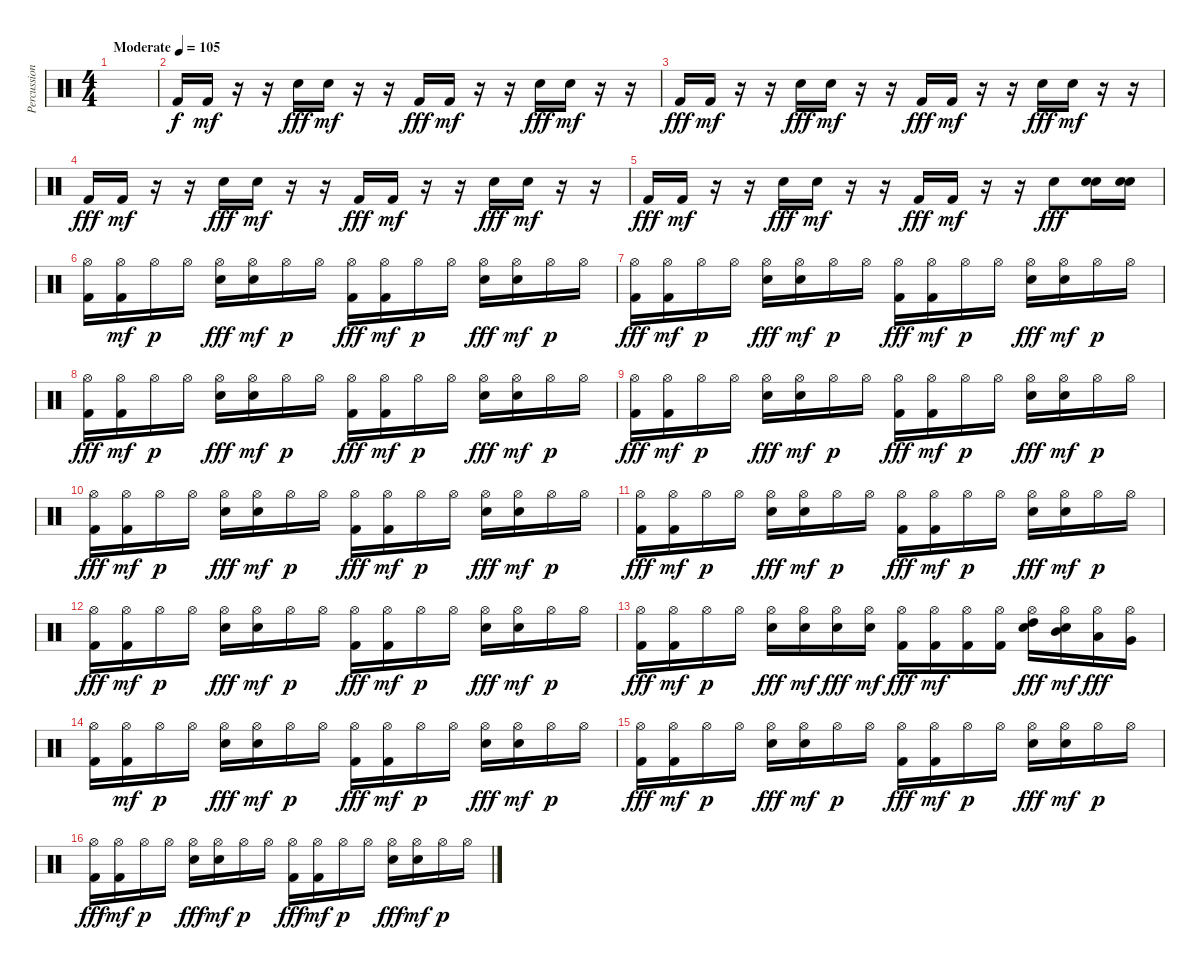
\track ("Percussion" "Percussion") {instrument percussion}
\staff {score}
\articulation defaults
\ts (4 4)
\tempo (105 "Moderate")
\clef neutral
\ks c
|
"Kick (hit) 2".16 "Kick (hit) 2".16{dy mf} r.16 r.16 "Snare (hit) 2".16{dy fff} "Snare (hit) 2".16{dy mf} r.16 r.16 "Kick (hit) 2".16{dy fff} "Kick (hit) 2".16{dy mf} r.16 r.16 "Snare (hit) 2".16{dy fff} "Snare (hit) 2".16{dy mf} r.16 r.16 |
"Kick (hit) 2".16{dy fff} "Kick (hit) 2".16{dy mf} r.16 r.16 "Snare (hit) 2".16{dy fff} "Snare (hit) 2".16{dy mf} r.16 r.16 "Kick (hit) 2".16{dy fff} "Kick (hit) 2".16{dy mf} r.16 r.16 "Snare (hit) 2".16{dy fff} "Snare (hit) 2".16{dy mf} r.16 r.16 |
"Kick (hit) 2".16{dy fff} "Kick (hit) 2".16{dy mf} r.16 r.16 "Snare (hit) 2".16{dy fff} "Snare (hit) 2".16{dy mf} r.16 r.16 "Kick (hit) 2".16{dy fff} "Kick (hit) 2".16{dy mf} r.16 r.16 "Snare (hit) 2".16{dy fff} "Snare (hit) 2".16{dy mf} r.16 r.16 |
"Kick (hit) 2".16{dy fff} "Kick (hit) 2".16{dy mf} r.16 r.16 "Snare (hit) 2".16{dy fff} "Snare (hit) 2".16{dy mf} r.16 r.16 "Kick (hit) 2".16{dy fff} "Kick (hit) 2".16{dy mf} r.16 r.16 "Snare (hit) 2".8{dy fff} ("Snare (hit) 2" "Electric Snare (hit)").16 ("Snare (hit) 2" "Electric Snare (hit)").16 |
("Hi-Hat (open)" "Kick (hit) 2").16 ("Hi-Hat (open)" "Kick (hit) 2").16{dy mf} "Hi-Hat (open)".16{dy p} "Hi-Hat (open)".16 ("Hi-Hat (open)" "Snare (hit) 2").16{dy fff} ("Hi-Hat (open)" "Snare (hit) 2").16{dy mf} "Hi-Hat (open)".16{dy p} "Hi-Hat (open)".16 ("Hi-Hat (open)" "Kick (hit) 2").16{dy fff} ("Hi-Hat (open)" "Kick (hit) 2").16{dy mf} "Hi-Hat (open)".16{dy p} "Hi-Hat (open)".16 ("Hi-Hat (open)" "Snare (hit) 2").16{dy fff} ("Hi-Hat (open)" "Snare (hit) 2").16{dy mf} "Hi-Hat (open)".16{dy p} "Hi-Hat (open)".16 |
("Hi-Hat (open)" "Kick (hit) 2").16{dy fff} ("Hi-Hat (open)" "Kick (hit) 2").16{dy mf} "Hi-Hat (open)".16{dy p} "Hi-Hat (open)".16 ("Hi-Hat (open)" "Snare (hit) 2").16{dy fff} ("Hi-Hat (open)" "Snare (hit) 2").16{dy mf} "Hi-Hat (open)".16{dy p} "Hi-Hat (open)".16 ("Hi-Hat (open)" "Kick (hit) 2").16{dy fff} ("Hi-Hat (open)" "Kick (hit) 2").16{dy mf} "Hi-Hat (open)".16{dy p} "Hi-Hat (open)".16 ("Hi-Hat (open)" "Snare (hit) 2").16{dy fff} ("Hi-Hat (open)" "Snare (hit) 2").16{dy mf} "Hi-Hat (open)".16{dy p} "Hi-Hat (open)".16 |
("Hi-Hat (open)" "Kick (hit) 2").16{dy fff} ("Hi-Hat (open)" "Kick (hit) 2").16{dy mf} "Hi-Hat (open)".16{dy p} "Hi-Hat (open)".16 ("Hi-Hat (open)" "Snare (hit) 2").16{dy fff} ("Hi-Hat (open)" "Snare (hit) 2").16{dy mf} "Hi-Hat (open)".16{dy p} "Hi-Hat (open)".16 ("Hi-Hat (open)" "Kick (hit) 2").16{dy fff} ("Hi-Hat (open)" "Kick (hit) 2").16{dy mf} "Hi-Hat (open)".16{dy p} "Hi-Hat (open)".16 ("Hi-Hat (open)" "Snare (hit) 2").16{dy fff} ("Hi-Hat (open)" "Snare (hit) 2").16{dy mf} "Hi-Hat (open)".16{dy p} "Hi-Hat (open)".16 |
("Hi-Hat (open)" "Kick (hit) 2").16{dy fff} ("Hi-Hat (open)" "Kick (hit) 2").16{dy mf} "Hi-Hat (open)".16{dy p} "Hi-Hat (open)".16 ("Hi-Hat (open)" "Snare (hit) 2").16{dy fff} ("Hi-Hat (open)" "Snare (hit) 2").16{dy mf} "Hi-Hat (open)".16{dy p} "Hi-Hat (open)".16 ("Hi-Hat (open)" "Kick (hit) 2").16{dy fff} ("Hi-Hat (open)" "Kick (hit) 2").16{dy mf} "Hi-Hat (open)".16{dy p} "Hi-Hat (open)".16 ("Hi-Hat (open)" "Snare (hit) 2").16{dy fff} ("Hi-Hat (open)" "Snare (hit) 2").16{dy mf} "Hi-Hat (open)".16{dy p} "Hi-Hat (open)".16 |
("Hi-Hat (open)" "Kick (hit) 2").16{dy fff} ("Hi-Hat (open)" "Kick (hit) 2").16{dy mf} "Hi-Hat (open)".16{dy p} "Hi-Hat (open)".16 ("Hi-Hat (open)" "Snare (hit) 2").16{dy fff} ("Hi-Hat (open)" "Snare (hit) 2").16{dy mf} "Hi-Hat (open)".16{dy p} "Hi-Hat (open)".16 ("Hi-Hat (open)" "Kick (hit) 2").16{dy fff} ("Hi-Hat (open)" "Kick (hit) 2").16{dy mf} "Hi-Hat (open)".16{dy p} "Hi-Hat (open)".16 ("Hi-Hat (open)" "Snare (hit) 2").16{dy fff} ("Hi-Hat (open)" "Snare (hit) 2").16{dy mf} "Hi-Hat (open)".16{dy p} "Hi-Hat (open)".16 |
("Hi-Hat (open)" "Kick (hit) 2").16{dy fff} ("Hi-Hat (open)" "Kick (hit) 2").16{dy mf} "Hi-Hat (open)".16{dy p} "Hi-Hat (open)".16 ("Hi-Hat (open)" "Snare (hit) 2").16{dy fff} ("Hi-Hat (open)" "Snare (hit) 2").16{dy mf} "Hi-Hat (open)".16{dy p} "Hi-Hat (open)".16 ("Hi-Hat (open)" "Kick (hit) 2").16{dy fff} ("Hi-Hat (open)" "Kick (hit) 2").16{dy mf} "Hi-Hat (open)".16{dy p} "Hi-Hat (open)".16 ("Hi-Hat (open)" "Snare (hit) 2").16{dy fff} ("Hi-Hat (open)" "Snare (hit) 2").16{dy mf} "Hi-Hat (open)".16{dy p} "Hi-Hat (open)".16 |
("Hi-Hat (open)" "Kick (hit) 2").16{dy fff} ("Hi-Hat (open)" "Kick (hit) 2").16{dy mf} "Hi-Hat (open)".16{dy p} "Hi-Hat (open)".16 ("Hi-Hat (open)" "Snare (hit) 2").16{dy fff} ("Hi-Hat (open)" "Snare (hit) 2").16{dy mf} "Hi-Hat (open)".16{dy p} "Hi-Hat (open)".16 ("Hi-Hat (open)" "Kick (hit) 2").16{dy fff} ("Hi-Hat (open)" "Kick (hit) 2").16{dy mf} "Hi-Hat (open)".16{dy p} "Hi-Hat (open)".16 ("Hi-Hat (open)" "Snare (hit) 2").16{dy fff} ("Hi-Hat (open)" "Snare (hit) 2").16{dy mf} "Hi-Hat (open)".16{dy p} "Hi-Hat (open)".16 |
("Hi-Hat (open)" "Kick (hit) 2").16{dy fff} ("Hi-Hat (open)" "Kick (hit) 2").16{dy mf} "Hi-Hat (open)".16{dy p} "Hi-Hat (open)".16 ("Hi-Hat (open)" "Snare (hit) 2").16{dy fff} ("Hi-Hat (open)" "Snare (hit) 2").16{dy mf} ("Hi-Hat (open)" "Snare (hit) 2").16{dy fff} ("Hi-Hat (open)" "Snare (hit) 2").16{dy mf} ("Hi-Hat (open)" "Kick (hit) 2").16{dy fff} ("Hi-Hat (open)" "Kick (hit) 2").16{dy mf} ("Hi-Hat (open)" "Kick (hit) 2").16 ("Hi-Hat (open)" "Kick (hit) 2").16 ("Hi-Hat (open)" "High Tom (hit)" "Snare (hit) 2").16{dy fff} ("Hi-Hat (open)" "Mid Tom (hit)" "Snare (hit) 2").16{dy mf} ("Hi-Hat (open)" "Low Tom (hit)").16{dy fff} ("Hi-Hat (open)" "Very Low Tom (hit)").16 |
("Hi-Hat (open)" "Kick (hit) 2").16 ("Hi-Hat (open)" "Kick (hit) 2").16{dy mf} "Hi-Hat (open)".16{dy p} "Hi-Hat (open)".16 ("Hi-Hat (open)" "Snare (hit) 2").16{dy fff} ("Hi-Hat (open)" "Snare (hit) 2").16{dy mf} "Hi-Hat (open)".16{dy p} "Hi-Hat (open)".16 ("Hi-Hat (open)" "Kick (hit) 2").16{dy fff} ("Hi-Hat (open)" "Kick (hit) 2").16{dy mf} "Hi-Hat (open)".16{dy p} "Hi-Hat (open)".16 ("Hi-Hat (open)" "Snare (hit) 2").16{dy fff} ("Hi-Hat (open)" "Snare (hit) 2").16{dy mf} "Hi-Hat (open)".16{dy p} "Hi-Hat (open)".16 |
("Hi-Hat (open)" "Kick (hit) 2").16{dy fff} ("Hi-Hat (open)" "Kick (hit) 2").16{dy mf} "Hi-Hat (open)".16{dy p} "Hi-Hat (open)".16 ("Hi-Hat (open)" "Snare (hit) 2").16{dy fff} ("Hi-Hat (open)" "Snare (hit) 2").16{dy mf} "Hi-Hat (open)".16{dy p} "Hi-Hat (open)".16 ("Hi-Hat (open)" "Kick (hit) 2").16{dy fff} ("Hi-Hat (open)" "Kick (hit) 2").16{dy mf} "Hi-Hat (open)".16{dy p} "Hi-Hat (open)".16 ("Hi-Hat (open)" "Snare (hit) 2").16{dy fff} ("Hi-Hat (open)" "Snare (hit) 2").16{dy mf} "Hi-Hat (open)".16{dy p} "Hi-Hat (open)".16 |
("Hi-Hat (open)" "Kick (hit) 2").16{dy fff} ("Hi-Hat (open)" "Kick (hit) 2").16{dy mf} "Hi-Hat (open)".16{dy p} "Hi-Hat (open)".16 ("Hi-Hat (open)" "Snare (hit) 2").16{dy fff} ("Hi-Hat (open)" "Snare (hit) 2").16{dy mf} "Hi-Hat (open)".16{dy p} "Hi-Hat (open)".16 ("Hi-Hat (open)" "Kick (hit) 2").16{dy fff} ("Hi-Hat (open)" "Kick (hit) 2").16{dy mf} "Hi-Hat (open)".16{dy p} "Hi-Hat (open)".16 ("Hi-Hat (open)" "Snare (hit) 2").16{dy fff} ("Hi-Hat (open)" "Snare (hit) 2").16{dy mf} "Hi-Hat (open)".16{dy p} "Hi-Hat (open)".16
